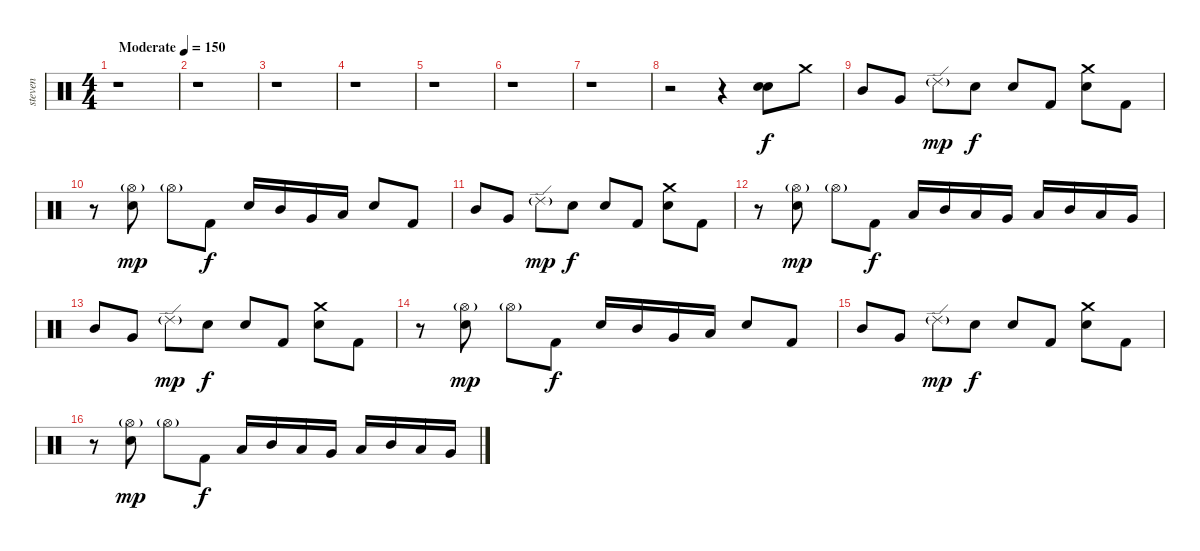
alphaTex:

\track ("steven" "steven") {instrument percussion}
\staff {score}
\articulation defaults
\ts (4 4)
\tempo (150 "Moderate")
\clef neutral
\ks c
r.1{dy f} |
r.1 |
r.1 |
r.1 |
r.1 |
r.1 |
r.1 |
r.2 r.4 ("Electric Snare (hit)" "Electric Snare (hit)").8 "Crash medium (hit)".8 |
"Mid Tom (hit)".8 "Very Low Tom (hit)".8 "Ride (edge) 2"{g}.8{dy mp} "Electric Snare (hit)".8{dy f} "Electric Snare (hit)".8 "Kick (hit) 2".8 ("Crash medium (hit)" "Electric Snare (hit)").8 "Kick (hit) 2".8 |
r.8 ("Hi-Hat (open)"{g} "Electric Snare (hit)").8{dy mp} "Hi-Hat (open)"{g}.8 "Kick (hit) 2".8{dy f} "Electric Snare (hit)".16 "Mid Tom (hit)".16 "Very Low Tom (hit)".16 "Low Tom (hit)".16 "Electric Snare (hit)".8 "Kick (hit) 2".8 |
"Mid Tom (hit)".8 "Very Low Tom (hit)".8 "Ride (edge) 2"{g}.8{dy mp} "Electric Snare (hit)".8{dy f} "Electric Snare (hit)".8 "Kick (hit) 2".8 ("Crash medium (hit)" "Electric Snare (hit)").8 "Kick (hit) 2".8 |
r.8 ("Hi-Hat (open)"{g} "Electric Snare (hit)").8{dy mp} "Hi-Hat (open)"{g}.8 "Kick (hit) 2".8{dy f} "Low Tom (hit)".16 "Mid Tom (hit)".16 "Low Tom (hit)".16 "Very Low Tom (hit)".16 "Low Tom (hit)".16 "Mid Tom (hit)".16 "Low Tom (hit)".16 "Very Low Tom (hit)".16 |
"Mid Tom (hit)".8 "Very Low Tom (hit)".8 "Ride (edge) 2"{g}.8{dy mp} "Electric Snare (hit)".8{dy f} "Electric Snare (hit)".8 "Kick (hit) 2".8 ("Crash medium (hit)" "Electric Snare (hit)").8 "Kick (hit) 2".8 |
r.8 ("Hi-Hat (open)"{g} "Electric Snare (hit)").8{dy mp} "Hi-Hat (open)"{g}.8 "Kick (hit) 2".8{dy f} "Electric Snare (hit)".16 "Mid Tom (hit)".16 "Very Low Tom (hit)".16 "Low Tom (hit)".16 "Electric Snare (hit)".8 "Kick (hit) 2".8 |
"Mid Tom (hit)".8 "Very Low Tom (hit)".8 "Ride (edge) 2"{g}.8{dy mp} "Electric Snare (hit)".8{dy f} "Electric Snare (hit)".8 "Kick (hit) 2".8 ("Crash medium (hit)" "Electric Snare (hit)").8 "Kick (hit) 2".8 |
r.8 ("Hi-Hat (open)"{g} "Electric Snare (hit)").8{dy mp} "Hi-Hat (open)"{g}.8 "Kick (hit) 2".8{dy f} "Low Tom (hit)".16 "Mid Tom (hit)".16 "Low Tom (hit)".16 "Very Low Tom (hit)".16 "Low Tom (hit)".16 "Mid Tom (hit)".16 "Low Tom (hit)".16 "Very Low Tom (hit)".16
